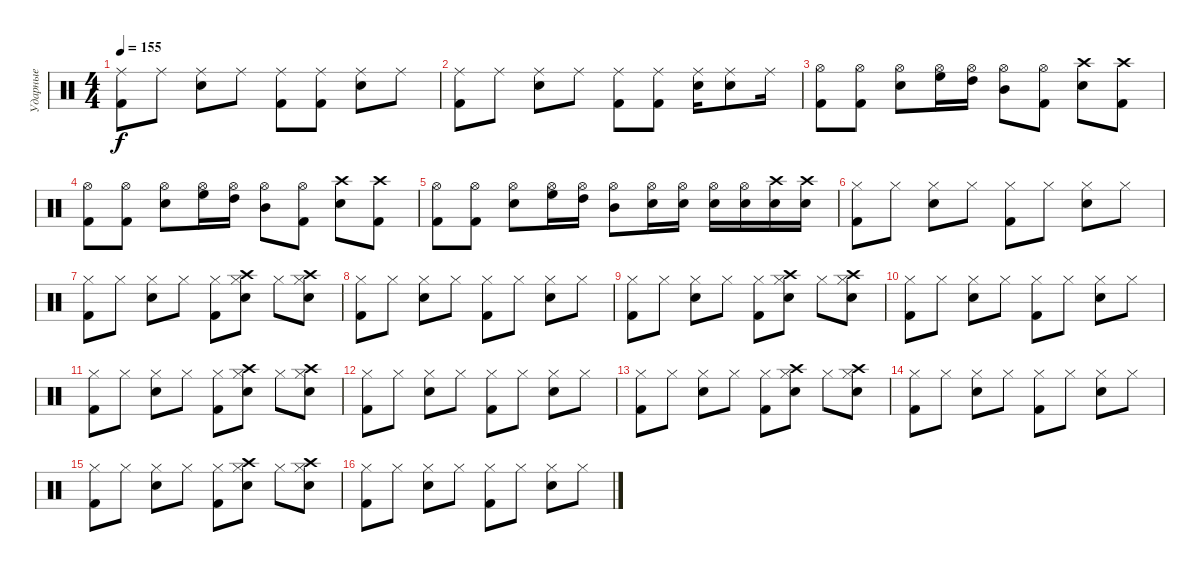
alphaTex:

\track ("Ударные" "Ударные") {solo instrument percussion}
\staff {score}
\articulation defaults
\ts (4 4)
\tempo 155
\clef neutral
\ks c
("Ride (middle)" "Kick (hit) 2").8{dy f} "Ride (middle)".8 ("Ride (middle)" "Snare (hit) 2").8 "Ride (middle)".8 ("Ride (middle)" "Kick (hit) 2").8 ("Ride (middle)" "Kick (hit) 2").8 ("Ride (middle)" "Snare (hit) 2").8 "Ride (middle)".8 |
("Ride (middle)" "Kick (hit) 2").8 "Ride (middle)".8 ("Ride (middle)" "Snare (hit) 2").8 "Ride (middle)".8 ("Ride (middle)" "Kick (hit) 2").8 ("Ride (middle)" "Kick (hit) 2").8 ("Ride (middle)" "Snare (hit) 2").16 ("Ride (middle)" "Snare (hit) 2").8 "Ride (middle)".16 |
("Kick (hit) 2" "Hi-Hat (open)").8 ("Kick (hit) 2" "Hi-Hat (open)").8 ("Snare (hit) 2" "Hi-Hat (open)").8 ("High Floor Tom (hit)" "Hi-Hat (open)").16 ("High Tom (hit)" "Hi-Hat (open)").16 ("Mid Tom (hit)" "Hi-Hat (open)").8 ("Kick (hit) 2" "Hi-Hat (open)").8 ("Snare (hit) 2" "Crash high (hit)").8 ("Kick (hit) 2" "Crash high (hit)").8 |
("Kick (hit) 2" "Hi-Hat (open)").8 ("Kick (hit) 2" "Hi-Hat (open)").8 ("Snare (hit) 2" "Hi-Hat (open)").8 ("High Floor Tom (hit)" "Hi-Hat (open)").16 ("High Tom (hit)" "Hi-Hat (open)").16 ("Mid Tom (hit)" "Hi-Hat (open)").8 ("Kick (hit) 2" "Hi-Hat (open)").8 ("Snare (hit) 2" "Crash high (hit)").8 ("Kick (hit) 2" "Crash high (hit)").8 |
("Kick (hit) 2" "Hi-Hat (open)").8 ("Kick (hit) 2" "Hi-Hat (open)").8 ("Snare (hit) 2" "Hi-Hat (open)").8 ("High Floor Tom (hit)" "Hi-Hat (open)").16 ("High Tom (hit)" "Hi-Hat (open)").16 ("Mid Tom (hit)" "Hi-Hat (open)").8 ("Electric Snare (hit)" "Hi-Hat (open)").16 ("Electric Snare (hit)" "Hi-Hat (open)").16 ("Electric Snare (hit)" "Hi-Hat (open)").16 ("Electric Snare (hit)" "Hi-Hat (open)").16 ("Electric Snare (hit)" "Crash high (hit)").16 ("Electric Snare (hit)" "Crash high (hit)").16 |
("Hi-Hat (closed)" "Kick (hit) 2").8 "Hi-Hat (closed)".8 ("Hi-Hat (closed)" "Snare (hit) 2").8 "Hi-Hat (closed)".8 ("Hi-Hat (closed)" "Kick (hit) 2").8 "Hi-Hat (closed)".8 ("Hi-Hat (closed)" "Snare (hit) 2").8 "Hi-Hat (closed)".8 |
("Hi-Hat (closed)" "Kick (hit) 2").8 "Hi-Hat (closed)".8 ("Hi-Hat (closed)" "Snare (hit) 2").8 "Hi-Hat (closed)".8 ("Hi-Hat (closed)" "Kick (hit) 2").8 ("Hi-Hat (closed)" "Snare (hit) 2" "Crash high (hit)").8 "Hi-Hat (closed)".8 ("Hi-Hat (closed)" "Snare (hit) 2" "Crash high (hit)").8 |
("Hi-Hat (closed)" "Kick (hit) 2").8 "Hi-Hat (closed)".8 ("Hi-Hat (closed)" "Snare (hit) 2").8 "Hi-Hat (closed)".8 ("Hi-Hat (closed)" "Kick (hit) 2").8 "Hi-Hat (closed)".8 ("Hi-Hat (closed)" "Snare (hit) 2").8 "Hi-Hat (closed)".8 |
("Hi-Hat (closed)" "Kick (hit) 2").8 "Hi-Hat (closed)".8 ("Hi-Hat (closed)" "Snare (hit) 2").8 "Hi-Hat (closed)".8 ("Hi-Hat (closed)" "Kick (hit) 2").8 ("Hi-Hat (closed)" "Snare (hit) 2" "Crash high (hit)").8 "Hi-Hat (closed)".8 ("Hi-Hat (closed)" "Snare (hit) 2" "Crash high (hit)").8 |
("Hi-Hat (closed)" "Kick (hit) 2").8 "Hi-Hat (closed)".8 ("Hi-Hat (closed)" "Snare (hit) 2").8 "Hi-Hat (closed)".8 ("Hi-Hat (closed)" "Kick (hit) 2").8 "Hi-Hat (closed)".8 ("Hi-Hat (closed)" "Snare (hit) 2").8 "Hi-Hat (closed)".8 |
("Hi-Hat (closed)" "Kick (hit) 2").8 "Hi-Hat (closed)".8 ("Hi-Hat (closed)" "Snare (hit) 2").8 "Hi-Hat (closed)".8 ("Hi-Hat (closed)" "Kick (hit) 2").8 ("Hi-Hat (closed)" "Snare (hit) 2" "Crash high (hit)").8 "Hi-Hat (closed)".8 ("Hi-Hat (closed)" "Snare (hit) 2" "Crash high (hit)").8 |
("Hi-Hat (closed)" "Kick (hit) 2").8 "Hi-Hat (closed)".8 ("Hi-Hat (closed)" "Snare (hit) 2").8 "Hi-Hat (closed)".8 ("Hi-Hat (closed)" "Kick (hit) 2").8 "Hi-Hat (closed)".8 ("Hi-Hat (closed)" "Snare (hit) 2").8 "Hi-Hat (closed)".8 |
("Hi-Hat (closed)" "Kick (hit) 2").8 "Hi-Hat (closed)".8 ("Hi-Hat (closed)" "Snare (hit) 2").8 "Hi-Hat (closed)".8 ("Hi-Hat (closed)" "Kick (hit) 2").8 ("Hi-Hat (closed)" "Snare (hit) 2" "Crash high (hit)").8 "Hi-Hat (closed)".8 ("Hi-Hat (closed)" "Snare (hit) 2" "Crash high (hit)").8 |
("Hi-Hat (closed)" "Kick (hit) 2").8 "Hi-Hat (closed)".8 ("Hi-Hat (closed)" "Snare (hit) 2").8 "Hi-Hat (closed)".8 ("Hi-Hat (closed)" "Kick (hit) 2").8 "Hi-Hat (closed)".8 ("Hi-Hat (closed)" "Snare (hit) 2").8 "Hi-Hat (closed)".8 |
("Hi-Hat (closed)" "Kick (hit) 2").8 "Hi-Hat (closed)".8 ("Hi-Hat (closed)" "Snare (hit) 2").8 "Hi-Hat (closed)".8 ("Hi-Hat (closed)" "Kick (hit) 2").8 ("Hi-Hat (closed)" "Snare (hit) 2" "Crash high (hit)").8 "Hi-Hat (closed)".8 ("Hi-Hat (closed)" "Snare (hit) 2" "Crash high (hit)").8 |
("Hi-Hat (closed)" "Kick (hit) 2").8 "Hi-Hat (closed)".8 ("Hi-Hat (closed)" "Snare (hit) 2").8 "Hi-Hat (closed)".8 ("Hi-Hat (closed)" "Kick (hit) 2").8 "Hi-Hat (closed)".8 ("Hi-Hat (closed)" "Snare (hit) 2").8 "Hi-Hat (closed)".8
